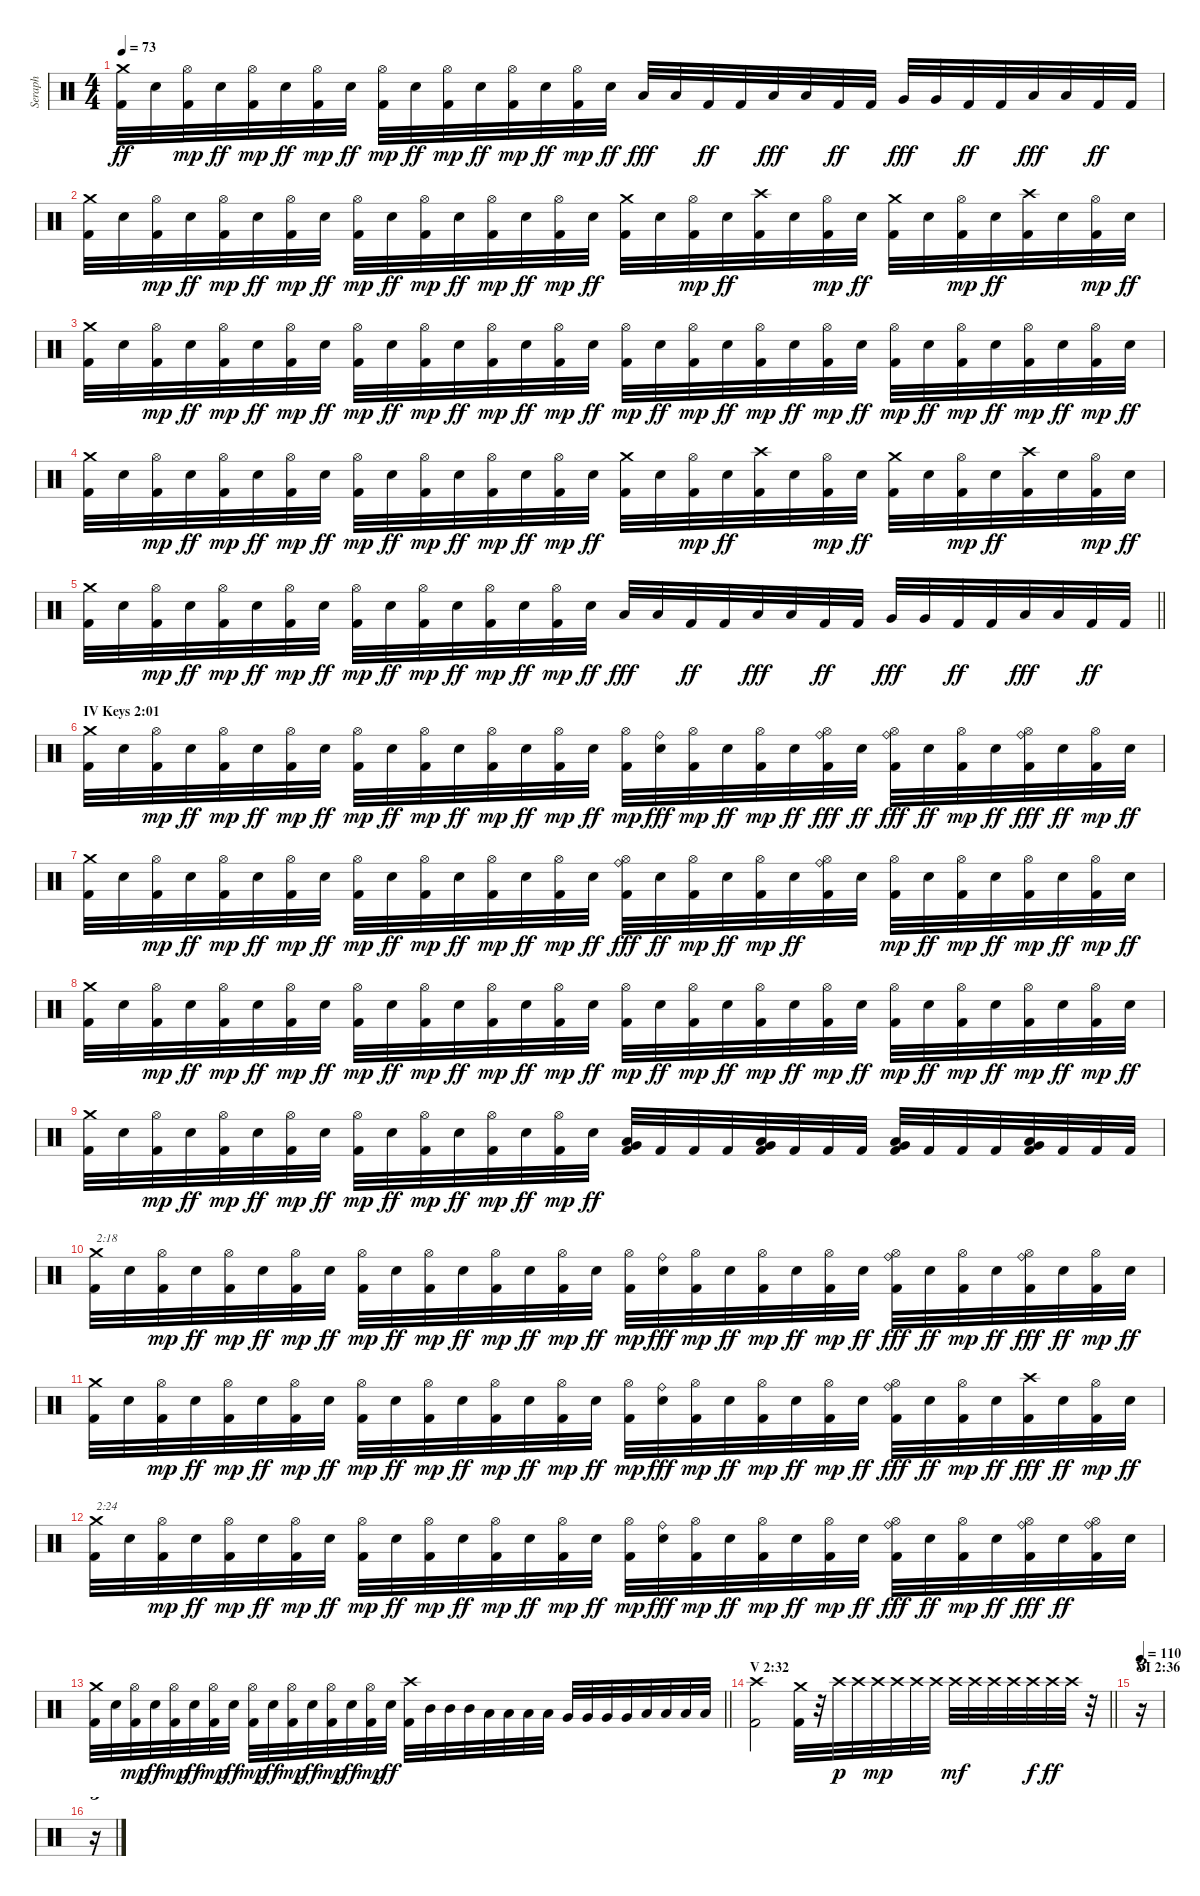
\track ("Seraph" "Seraph") {instrument percussion}
\staff {score}
\articulation defaults
\ts (4 4)
\tempo 73
\clef neutral
\ks c
("Kick (hit) 2" "Crash medium (hit)").32{dy ff} "Electric Snare (hit)".32 ("Kick (hit) 2" "Hi-Hat (open)").32{dy mp} "Electric Snare (hit)".32{dy ff} ("Kick (hit) 2" "Hi-Hat (open)").32{dy mp} "Electric Snare (hit)".32{dy ff} ("Kick (hit) 2" "Hi-Hat (open)").32{dy mp} "Electric Snare (hit)".32{dy ff} ("Kick (hit) 2" "Hi-Hat (open)").32{dy mp} "Electric Snare (hit)".32{dy ff} ("Kick (hit) 2" "Hi-Hat (open)").32{dy mp} "Electric Snare (hit)".32{dy ff} ("Kick (hit) 2" "Hi-Hat (open)").32{dy mp} "Electric Snare (hit)".32{dy ff} ("Kick (hit) 2" "Hi-Hat (open)").32{dy mp} "Electric Snare (hit)".32{dy ff} "Low Tom (hit)".32{dy fff} "Low Tom (hit)".32 "Kick (hit) 2".32{dy ff} "Kick (hit) 2".32 "Low Floor Tom (hit)".32{dy fff} "Low Floor Tom (hit)".32 "Kick (hit) 2".32{dy ff} "Kick (hit) 2".32 "Very Low Tom (hit)".32{dy fff} "Very Low Tom (hit)".32 "Kick (hit) 2".32{dy ff} "Kick (hit) 2".32 "Low Tom (hit)".32{dy fff} "Low Tom (hit)".32 "Kick (hit) 2".32{dy ff} "Kick (hit) 2".32 |
("Kick (hit) 2" "Crash medium (hit)").32 "Electric Snare (hit)".32 ("Kick (hit) 2" "Hi-Hat (open)").32{dy mp} "Electric Snare (hit)".32{dy ff} ("Kick (hit) 2" "Hi-Hat (open)").32{dy mp} "Electric Snare (hit)".32{dy ff} ("Kick (hit) 2" "Hi-Hat (open)").32{dy mp} "Electric Snare (hit)".32{dy ff} ("Kick (hit) 2" "Hi-Hat (open)").32{dy mp} "Electric Snare (hit)".32{dy ff} ("Kick (hit) 2" "Hi-Hat (open)").32{dy mp} "Electric Snare (hit)".32{dy ff} ("Kick (hit) 2" "Hi-Hat (open)").32{dy mp} "Electric Snare (hit)".32{dy ff} ("Kick (hit) 2" "Hi-Hat (open)").32{dy mp} "Electric Snare (hit)".32{dy ff} ("Kick (hit) 2" "Crash medium (hit)").32 "Electric Snare (hit)".32 ("Kick (hit) 2" "Hi-Hat (open)").32{dy mp} "Electric Snare (hit)".32{dy ff} ("Kick (hit) 2" "Crash high (hit)").32 "Electric Snare (hit)".32 ("Kick (hit) 2" "Hi-Hat (open)").32{dy mp} "Electric Snare (hit)".32{dy ff} ("Kick (hit) 2" "Crash medium (hit)").32 "Electric Snare (hit)".32 ("Kick (hit) 2" "Hi-Hat (open)").32{dy mp} "Electric Snare (hit)".32{dy ff} ("Kick (hit) 2" "Crash high (hit)").32 "Electric Snare (hit)".32 ("Kick (hit) 2" "Hi-Hat (open)").32{dy mp} "Electric Snare (hit)".32{dy ff} |
("Kick (hit) 2" "Crash medium (hit)").32 "Electric Snare (hit)".32 ("Kick (hit) 2" "Hi-Hat (open)").32{dy mp} "Electric Snare (hit)".32{dy ff} ("Kick (hit) 2" "Hi-Hat (open)").32{dy mp} "Electric Snare (hit)".32{dy ff} ("Kick (hit) 2" "Hi-Hat (open)").32{dy mp} "Electric Snare (hit)".32{dy ff} ("Kick (hit) 2" "Hi-Hat (open)").32{dy mp} "Electric Snare (hit)".32{dy ff} ("Kick (hit) 2" "Hi-Hat (open)").32{dy mp} "Electric Snare (hit)".32{dy ff} ("Kick (hit) 2" "Hi-Hat (open)").32{dy mp} "Electric Snare (hit)".32{dy ff} ("Kick (hit) 2" "Hi-Hat (open)").32{dy mp} "Electric Snare (hit)".32{dy ff} ("Kick (hit) 2" "Hi-Hat (open)").32{dy mp} "Electric Snare (hit)".32{dy ff} ("Kick (hit) 2" "Hi-Hat (open)").32{dy mp} "Electric Snare (hit)".32{dy ff} ("Kick (hit) 2" "Hi-Hat (open)").32{dy mp} "Electric Snare (hit)".32{dy ff} ("Kick (hit) 2" "Hi-Hat (open)").32{dy mp} "Electric Snare (hit)".32{dy ff} ("Kick (hit) 2" "Hi-Hat (open)").32{dy mp} "Electric Snare (hit)".32{dy ff} ("Kick (hit) 2" "Hi-Hat (open)").32{dy mp} "Electric Snare (hit)".32{dy ff} ("Kick (hit) 2" "Hi-Hat (open)").32{dy mp} "Electric Snare (hit)".32{dy ff} ("Kick (hit) 2" "Hi-Hat (open)").32{dy mp} "Electric Snare (hit)".32{dy ff} |
("Kick (hit) 2" "Crash medium (hit)").32 "Electric Snare (hit)".32 ("Kick (hit) 2" "Hi-Hat (open)").32{dy mp} "Electric Snare (hit)".32{dy ff} ("Kick (hit) 2" "Hi-Hat (open)").32{dy mp} "Electric Snare (hit)".32{dy ff} ("Kick (hit) 2" "Hi-Hat (open)").32{dy mp} "Electric Snare (hit)".32{dy ff} ("Kick (hit) 2" "Hi-Hat (open)").32{dy mp} "Electric Snare (hit)".32{dy ff} ("Kick (hit) 2" "Hi-Hat (open)").32{dy mp} "Electric Snare (hit)".32{dy ff} ("Kick (hit) 2" "Hi-Hat (open)").32{dy mp} "Electric Snare (hit)".32{dy ff} ("Kick (hit) 2" "Hi-Hat (open)").32{dy mp} "Electric Snare (hit)".32{dy ff} ("Kick (hit) 2" "Crash medium (hit)").32 "Electric Snare (hit)".32 ("Kick (hit) 2" "Hi-Hat (open)").32{dy mp} "Electric Snare (hit)".32{dy ff} ("Kick (hit) 2" "Crash high (hit)").32 "Electric Snare (hit)".32 ("Kick (hit) 2" "Hi-Hat (open)").32{dy mp} "Electric Snare (hit)".32{dy ff} ("Kick (hit) 2" "Crash medium (hit)").32 "Electric Snare (hit)".32 ("Kick (hit) 2" "Hi-Hat (open)").32{dy mp} "Electric Snare (hit)".32{dy ff} ("Kick (hit) 2" "Crash high (hit)").32 "Electric Snare (hit)".32 ("Kick (hit) 2" "Hi-Hat (open)").32{dy mp} "Electric Snare (hit)".32{dy ff} |
\barLineRight lightlight
("Kick (hit) 2" "Crash medium (hit)").32 "Electric Snare (hit)".32 ("Kick (hit) 2" "Hi-Hat (open)").32{dy mp} "Electric Snare (hit)".32{dy ff} ("Kick (hit) 2" "Hi-Hat (open)").32{dy mp} "Electric Snare (hit)".32{dy ff} ("Kick (hit) 2" "Hi-Hat (open)").32{dy mp} "Electric Snare (hit)".32{dy ff} ("Kick (hit) 2" "Hi-Hat (open)").32{dy mp} "Electric Snare (hit)".32{dy ff} ("Kick (hit) 2" "Hi-Hat (open)").32{dy mp} "Electric Snare (hit)".32{dy ff} ("Kick (hit) 2" "Hi-Hat (open)").32{dy mp} "Electric Snare (hit)".32{dy ff} ("Kick (hit) 2" "Hi-Hat (open)").32{dy mp} "Electric Snare (hit)".32{dy ff} "Low Tom (hit)".32{dy fff} "Low Tom (hit)".32 "Kick (hit) 2".32{dy ff} "Kick (hit) 2".32 "Low Floor Tom (hit)".32{dy fff} "Low Floor Tom (hit)".32 "Kick (hit) 2".32{dy ff} "Kick (hit) 2".32 "Very Low Tom (hit)".32{dy fff} "Very Low Tom (hit)".32 "Kick (hit) 2".32{dy ff} "Kick (hit) 2".32 "Low Tom (hit)".32{dy fff} "Low Tom (hit)".32 "Kick (hit) 2".32{dy ff} "Kick (hit) 2".32 |
\section ("" "IV Keys 2:01")
("Kick (hit) 2" "Crash medium (hit)").32 "Electric Snare (hit)".32 ("Kick (hit) 2" "Hi-Hat (open)").32{dy mp} "Electric Snare (hit)".32{dy ff} ("Kick (hit) 2" "Hi-Hat (open)").32{dy mp} "Electric Snare (hit)".32{dy ff} ("Kick (hit) 2" "Hi-Hat (open)").32{dy mp} "Electric Snare (hit)".32{dy ff} ("Kick (hit) 2" "Hi-Hat (open)").32{dy mp} "Electric Snare (hit)".32{dy ff} ("Kick (hit) 2" "Hi-Hat (open)").32{dy mp} "Electric Snare (hit)".32{dy ff} ("Kick (hit) 2" "Hi-Hat (open)").32{dy mp} "Electric Snare (hit)".32{dy ff} ("Kick (hit) 2" "Hi-Hat (open)").32{dy mp} "Electric Snare (hit)".32{dy ff} ("Kick (hit) 2" "Hi-Hat (open)").32{dy mp} ("Electric Snare (hit)" "Ride (bell)").32{dy fff} ("Kick (hit) 2" "Hi-Hat (open)").32{dy mp} "Electric Snare (hit)".32{dy ff} ("Kick (hit) 2" "Hi-Hat (open)").32{dy mp} "Electric Snare (hit)".32{dy ff} ("Kick (hit) 2" "Hi-Hat (open)" "Ride (bell)").32{dy fff} "Electric Snare (hit)".32{dy ff} ("Kick (hit) 2" "Hi-Hat (open)" "Ride (bell)").32{dy fff} "Electric Snare (hit)".32{dy ff} ("Kick (hit) 2" "Hi-Hat (open)").32{dy mp} "Electric Snare (hit)".32{dy ff} ("Kick (hit) 2" "Hi-Hat (open)" "Ride (bell)").32{dy fff} "Electric Snare (hit)".32{dy ff} ("Kick (hit) 2" "Hi-Hat (open)").32{dy mp} "Electric Snare (hit)".32{dy ff} |
("Kick (hit) 2" "Crash medium (hit)").32 "Electric Snare (hit)".32 ("Kick (hit) 2" "Hi-Hat (open)").32{dy mp} "Electric Snare (hit)".32{dy ff} ("Kick (hit) 2" "Hi-Hat (open)").32{dy mp} "Electric Snare (hit)".32{dy ff} ("Kick (hit) 2" "Hi-Hat (open)").32{dy mp} "Electric Snare (hit)".32{dy ff} ("Kick (hit) 2" "Hi-Hat (open)").32{dy mp} "Electric Snare (hit)".32{dy ff} ("Kick (hit) 2" "Hi-Hat (open)").32{dy mp} "Electric Snare (hit)".32{dy ff} ("Kick (hit) 2" "Hi-Hat (open)").32{dy mp} "Electric Snare (hit)".32{dy ff} ("Kick (hit) 2" "Hi-Hat (open)").32{dy mp} "Electric Snare (hit)".32{dy ff} ("Kick (hit) 2" "Hi-Hat (open)" "Ride (bell)").32{dy fff} "Electric Snare (hit)".32{dy ff} ("Kick (hit) 2" "Hi-Hat (open)").32{dy mp} "Electric Snare (hit)".32{dy ff} ("Kick (hit) 2" "Hi-Hat (open)").32{dy mp} "Electric Snare (hit)".32{dy ff} ("Kick (hit) 2" "Hi-Hat (open)" "Ride (bell)").32 "Electric Snare (hit)".32 ("Kick (hit) 2" "Hi-Hat (open)").32{dy mp} "Electric Snare (hit)".32{dy ff} ("Kick (hit) 2" "Hi-Hat (open)").32{dy mp} "Electric Snare (hit)".32{dy ff} ("Kick (hit) 2" "Hi-Hat (open)").32{dy mp} "Electric Snare (hit)".32{dy ff} ("Kick (hit) 2" "Hi-Hat (open)").32{dy mp} "Electric Snare (hit)".32{dy ff} |
("Kick (hit) 2" "Crash medium (hit)").32 "Electric Snare (hit)".32 ("Kick (hit) 2" "Hi-Hat (open)").32{dy mp} "Electric Snare (hit)".32{dy ff} ("Kick (hit) 2" "Hi-Hat (open)").32{dy mp} "Electric Snare (hit)".32{dy ff} ("Kick (hit) 2" "Hi-Hat (open)").32{dy mp} "Electric Snare (hit)".32{dy ff} ("Kick (hit) 2" "Hi-Hat (open)").32{dy mp} "Electric Snare (hit)".32{dy ff} ("Kick (hit) 2" "Hi-Hat (open)").32{dy mp} "Electric Snare (hit)".32{dy ff} ("Kick (hit) 2" "Hi-Hat (open)").32{dy mp} "Electric Snare (hit)".32{dy ff} ("Kick (hit) 2" "Hi-Hat (open)").32{dy mp} "Electric Snare (hit)".32{dy ff} ("Kick (hit) 2" "Hi-Hat (open)").32{dy mp} "Electric Snare (hit)".32{dy ff} ("Kick (hit) 2" "Hi-Hat (open)").32{dy mp} "Electric Snare (hit)".32{dy ff} ("Kick (hit) 2" "Hi-Hat (open)").32{dy mp} "Electric Snare (hit)".32{dy ff} ("Kick (hit) 2" "Hi-Hat (open)").32{dy mp} "Electric Snare (hit)".32{dy ff} ("Kick (hit) 2" "Hi-Hat (open)").32{dy mp} "Electric Snare (hit)".32{dy ff} ("Kick (hit) 2" "Hi-Hat (open)").32{dy mp} "Electric Snare (hit)".32{dy ff} ("Kick (hit) 2" "Hi-Hat (open)").32{dy mp} "Electric Snare (hit)".32{dy ff} ("Kick (hit) 2" "Hi-Hat (open)").32{dy mp} "Electric Snare (hit)".32{dy ff} |
("Kick (hit) 2" "Crash medium (hit)").32 "Electric Snare (hit)".32 ("Kick (hit) 2" "Hi-Hat (open)").32{dy mp} "Electric Snare (hit)".32{dy ff} ("Kick (hit) 2" "Hi-Hat (open)").32{dy mp} "Electric Snare (hit)".32{dy ff} ("Kick (hit) 2" "Hi-Hat (open)").32{dy mp} "Electric Snare (hit)".32{dy ff} ("Kick (hit) 2" "Hi-Hat (open)").32{dy mp} "Electric Snare (hit)".32{dy ff} ("Kick (hit) 2" "Hi-Hat (open)").32{dy mp} "Electric Snare (hit)".32{dy ff} ("Kick (hit) 2" "Hi-Hat (open)").32{dy mp} "Electric Snare (hit)".32{dy ff} ("Kick (hit) 2" "Hi-Hat (open)").32{dy mp} "Electric Snare (hit)".32{dy ff} ("Kick (hit) 2" "Very Low Tom (hit)" "Low Floor Tom (hit)").32 "Kick (hit) 2".32 "Kick (hit) 2".32 "Kick (hit) 2".32 ("Kick (hit) 2" "Very Low Tom (hit)" "Low Tom (hit)").32 "Kick (hit) 2".32 "Kick (hit) 2".32 "Kick (hit) 2".32 ("Kick (hit) 2" "Very Low Tom (hit)" "Low Floor Tom (hit)").32 "Kick (hit) 2".32 "Kick (hit) 2".32 "Kick (hit) 2".32 ("Kick (hit) 2" "Very Low Tom (hit)" "Low Tom (hit)").32 "Kick (hit) 2".32 "Kick (hit) 2".32 "Kick (hit) 2".32 |
("Kick (hit) 2" "Crash medium (hit)").32{txt "2:18"} "Electric Snare (hit)".32 ("Kick (hit) 2" "Hi-Hat (open)").32{dy mp} "Electric Snare (hit)".32{dy ff} ("Kick (hit) 2" "Hi-Hat (open)").32{dy mp} "Electric Snare (hit)".32{dy ff} ("Kick (hit) 2" "Hi-Hat (open)").32{dy mp} "Electric Snare (hit)".32{dy ff} ("Kick (hit) 2" "Hi-Hat (open)").32{dy mp} "Electric Snare (hit)".32{dy ff} ("Kick (hit) 2" "Hi-Hat (open)").32{dy mp} "Electric Snare (hit)".32{dy ff} ("Kick (hit) 2" "Hi-Hat (open)").32{dy mp} "Electric Snare (hit)".32{dy ff} ("Kick (hit) 2" "Hi-Hat (open)").32{dy mp} "Electric Snare (hit)".32{dy ff} ("Kick (hit) 2" "Hi-Hat (open)").32{dy mp} ("Electric Snare (hit)" "Ride (bell)").32{dy fff} ("Kick (hit) 2" "Hi-Hat (open)").32{dy mp} "Electric Snare (hit)".32{dy ff} ("Kick (hit) 2" "Hi-Hat (open)").32{dy mp} "Electric Snare (hit)".32{dy ff} ("Kick (hit) 2" "Hi-Hat (open)").32{dy mp} "Electric Snare (hit)".32{dy ff} ("Kick (hit) 2" "Hi-Hat (open)" "Ride (bell)").32{dy fff} "Electric Snare (hit)".32{dy ff} ("Kick (hit) 2" "Hi-Hat (open)").32{dy mp} "Electric Snare (hit)".32{dy ff} ("Kick (hit) 2" "Hi-Hat (open)" "Ride (bell)").32{dy fff} "Electric Snare (hit)".32{dy ff} ("Kick (hit) 2" "Hi-Hat (open)").32{dy mp} "Electric Snare (hit)".32{dy ff} |
("Kick (hit) 2" "Crash medium (hit)").32 "Electric Snare (hit)".32 ("Kick (hit) 2" "Hi-Hat (open)").32{dy mp} "Electric Snare (hit)".32{dy ff} ("Kick (hit) 2" "Hi-Hat (open)").32{dy mp} "Electric Snare (hit)".32{dy ff} ("Kick (hit) 2" "Hi-Hat (open)").32{dy mp} "Electric Snare (hit)".32{dy ff} ("Kick (hit) 2" "Hi-Hat (open)").32{dy mp} "Electric Snare (hit)".32{dy ff} ("Kick (hit) 2" "Hi-Hat (open)").32{dy mp} "Electric Snare (hit)".32{dy ff} ("Kick (hit) 2" "Hi-Hat (open)").32{dy mp} "Electric Snare (hit)".32{dy ff} ("Kick (hit) 2" "Hi-Hat (open)").32{dy mp} "Electric Snare (hit)".32{dy ff} ("Kick (hit) 2" "Hi-Hat (open)").32{dy mp} ("Electric Snare (hit)" "Ride (bell)").32{dy fff} ("Kick (hit) 2" "Hi-Hat (open)").32{dy mp} "Electric Snare (hit)".32{dy ff} ("Kick (hit) 2" "Hi-Hat (open)").32{dy mp} "Electric Snare (hit)".32{dy ff} ("Kick (hit) 2" "Hi-Hat (open)").32{dy mp} "Electric Snare (hit)".32{dy ff} ("Kick (hit) 2" "Hi-Hat (open)" "Ride (bell)").32{dy fff} "Electric Snare (hit)".32{dy ff} ("Kick (hit) 2" "Hi-Hat (open)").32{dy mp} "Electric Snare (hit)".32{dy ff} ("Kick (hit) 2" "Crash high (hit)").32{dy fff} "Electric Snare (hit)".32{dy ff} ("Kick (hit) 2" "Hi-Hat (open)").32{dy mp} "Electric Snare (hit)".32{dy ff} |
("Kick (hit) 2" "Crash medium (hit)").32{txt "2:24"} "Electric Snare (hit)".32 ("Kick (hit) 2" "Hi-Hat (open)").32{dy mp} "Electric Snare (hit)".32{dy ff} ("Kick (hit) 2" "Hi-Hat (open)").32{dy mp} "Electric Snare (hit)".32{dy ff} ("Kick (hit) 2" "Hi-Hat (open)").32{dy mp} "Electric Snare (hit)".32{dy ff} ("Kick (hit) 2" "Hi-Hat (open)").32{dy mp} "Electric Snare (hit)".32{dy ff} ("Kick (hit) 2" "Hi-Hat (open)").32{dy mp} "Electric Snare (hit)".32{dy ff} ("Kick (hit) 2" "Hi-Hat (open)").32{dy mp} "Electric Snare (hit)".32{dy ff} ("Kick (hit) 2" "Hi-Hat (open)").32{dy mp} "Electric Snare (hit)".32{dy ff} ("Kick (hit) 2" "Hi-Hat (open)").32{dy mp} ("Electric Snare (hit)" "Ride (bell)").32{dy fff} ("Kick (hit) 2" "Hi-Hat (open)").32{dy mp} "Electric Snare (hit)".32{dy ff} ("Kick (hit) 2" "Hi-Hat (open)").32{dy mp} "Electric Snare (hit)".32{dy ff} ("Kick (hit) 2" "Hi-Hat (open)").32{dy mp} "Electric Snare (hit)".32{dy ff} ("Kick (hit) 2" "Hi-Hat (open)" "Ride (bell)").32{dy fff} "Electric Snare (hit)".32{dy ff} ("Kick (hit) 2" "Hi-Hat (open)").32{dy mp} "Electric Snare (hit)".32{dy ff} ("Kick (hit) 2" "Hi-Hat (open)" "Ride (bell)").32{dy fff} "Electric Snare (hit)".32{dy ff} ("Kick (hit) 2" "Hi-Hat (open)" "Ride (bell)").32 "Electric Snare (hit)".32 |
\barLineRight lightlight
("Kick (hit) 2" "Crash medium (hit)").32 "Electric Snare (hit)".32 ("Kick (hit) 2" "Hi-Hat (open)").32{dy mp} "Electric Snare (hit)".32{dy ff} ("Kick (hit) 2" "Hi-Hat (open)").32{dy mp} "Electric Snare (hit)".32{dy ff} ("Kick (hit) 2" "Hi-Hat (open)").32{dy mp} "Electric Snare (hit)".32{dy ff} ("Kick (hit) 2" "Hi-Hat (open)").32{dy mp} "Electric Snare (hit)".32{dy ff} ("Kick (hit) 2" "Hi-Hat (open)").32{dy mp} "Electric Snare (hit)".32{dy ff} ("Kick (hit) 2" "Hi-Hat (open)").32{dy mp} "Electric Snare (hit)".32{dy ff} ("Kick (hit) 2" "Hi-Hat (open)").32{dy mp} "Electric Snare (hit)".32{dy ff} ("Kick (hit) 2" "Crash high (hit)").32 "Mid Tom (hit)".32 "Mid Tom (hit)".32 "Mid Tom (hit)".32 "Low Tom (hit)".32 "Low Tom (hit)".32 "Low Tom (hit)".32 "Low Tom (hit)".32 "Very Low Tom (hit)".32 "Very Low Tom (hit)".32 "Very Low Tom (hit)".32 "Very Low Tom (hit)".32 "Low Floor Tom (hit)".32 "Low Floor Tom (hit)".32 "Low Floor Tom (hit)".32 "Low Floor Tom (hit)".32 |
\section ("" "V 2:32")
\barLineRight lightlight
("Kick (hit) 2" "Crash high (hit)").2 ("Kick (hit) 2" "Crash medium (hit)").32 r.32 "Crash high (hit)".32{dy p} "Crash high (hit)".32 "Crash high (hit)".32{dy mp} "Crash high (hit)".32 "Crash high (hit)".32 "Crash high (hit)".32 "Crash high (hit)".32{dy mf} "Crash high (hit)".32 "Crash high (hit)".32 "Crash high (hit)".32 "Crash high (hit)".32{dy f} "Crash high (hit)".32{dy ff} "Crash high (hit)".32 r.32 |
\section ("" "VI 2:36")
\tempo 110
r.16{tu (3 2)} |
r.16{tu (3 2)}
